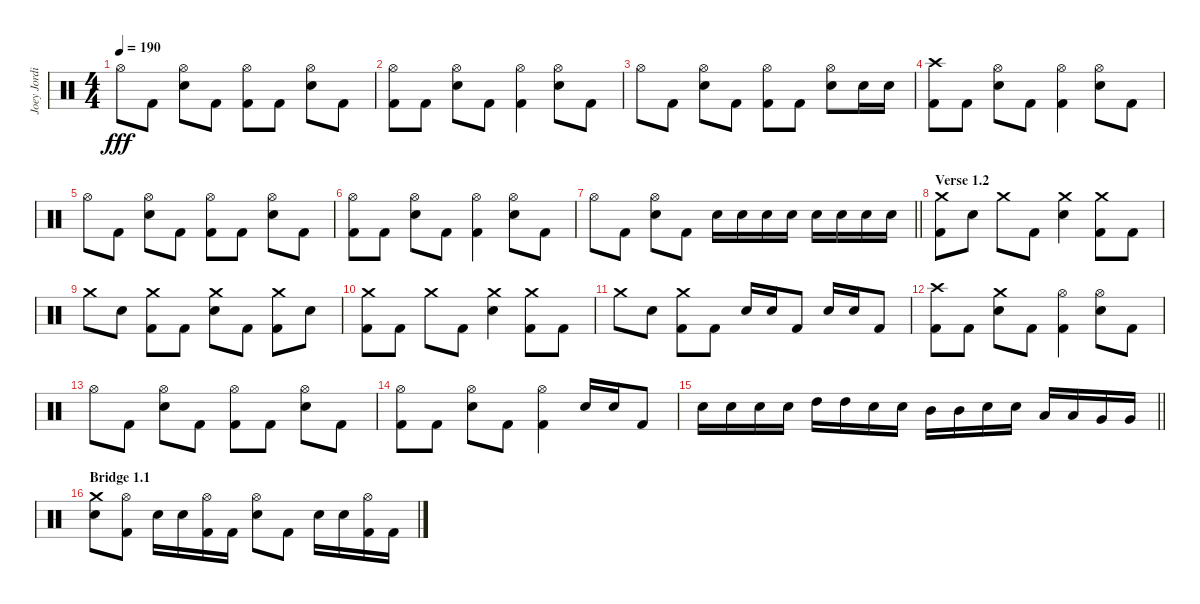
\track ("Joey Jordison" "Joey Jordi") {instrument percussion}
\staff {score}
\articulation defaults
\ts (4 4)
\tempo 190
\clef neutral
\ks c "Hi-Hat (open)".8{dy fff} "Kick (hit) 2".8
("Hi-Hat (open)" "Electric Snare (hit)").8 "Kick (hit) 2".8 ("Hi-Hat (open)" "Kick (hit) 2").8 "Kick (hit) 2".8 ("Hi-Hat (open)" "Electric Snare (hit)").8 "Kick (hit) 2".8 |
("Hi-Hat (open)" "Kick (hit) 2").8 "Kick (hit) 2".8 ("Hi-Hat (open)" "Electric Snare (hit)").8 "Kick (hit) 2".8 ("Hi-Hat (open)" "Kick (hit) 2").4 ("Hi-Hat (open)" "Electric Snare (hit)").8 "Kick (hit) 2".8 |
"Hi-Hat (open)".8 "Kick (hit) 2".8 ("Hi-Hat (open)" "Electric Snare (hit)").8 "Kick (hit) 2".8 ("Hi-Hat (open)" "Kick (hit) 2").8 "Kick (hit) 2".8 ("Hi-Hat (open)" "Electric Snare (hit)").8 "Electric Snare (hit)".16 "Electric Snare (hit)".16 |
("Crash high (hit)" "Kick (hit) 2").8 "Kick (hit) 2".8 ("Hi-Hat (open)" "Electric Snare (hit)").8 "Kick (hit) 2".8 ("Hi-Hat (open)" "Kick (hit) 2").4 ("Hi-Hat (open)" "Electric Snare (hit)").8 "Kick (hit) 2".8 |
"Hi-Hat (open)".8 "Kick (hit) 2".8 ("Hi-Hat (open)" "Electric Snare (hit)").8 "Kick (hit) 2".8 ("Hi-Hat (open)" "Kick (hit) 2").8 "Kick (hit) 2".8 ("Hi-Hat (open)" "Electric Snare (hit)").8 "Kick (hit) 2".8 |
("Hi-Hat (open)" "Kick (hit) 2").8 "Kick (hit) 2".8 ("Hi-Hat (open)" "Electric Snare (hit)").8 "Kick (hit) 2".8 ("Hi-Hat (open)" "Kick (hit) 2").4 ("Hi-Hat (open)" "Electric Snare (hit)").8 "Kick (hit) 2".8 |
\barLineRight lightlight "Hi-Hat (open)".8 "Kick (hit) 2".8
("Hi-Hat (open)" "Electric Snare (hit)").8 "Kick (hit) 2".8 "Electric Snare (hit)".16 "Electric Snare (hit)".16 "Electric Snare (hit)".16 "Electric Snare (hit)".16 "Electric Snare (hit)".16 "Electric Snare (hit)".16 "Electric Snare (hit)".16 "Electric Snare (hit)".16 |
\section ("" "Verse 1.2")
("Crash medium (hit)" "Kick (hit) 2").8 "Electric Snare (hit)".8 "Crash medium (hit)".8 "Kick (hit) 2".8 ("Crash medium (hit)" "Electric Snare (hit)").4 ("Crash medium (hit)" "Kick (hit) 2").8 "Kick (hit) 2".8 |
"Crash medium (hit)".8 "Electric Snare (hit)".8 ("Crash medium (hit)" "Kick (hit) 2").8 "Kick (hit) 2".8 ("Crash medium (hit)" "Electric Snare (hit)").8 "Kick (hit) 2".8 ("Crash medium (hit)" "Kick (hit) 2").8 "Electric Snare (hit)".8 |
("Crash medium (hit)" "Kick (hit) 2").8 "Kick (hit) 2".8 "Crash medium (hit)".8 "Kick (hit) 2".8 ("Crash medium (hit)" "Electric Snare (hit)").4 ("Crash medium (hit)" "Kick (hit) 2").8 "Kick (hit) 2".8 |
"Crash medium (hit)".8 "Electric Snare (hit)".8 ("Crash medium (hit)" "Kick (hit) 2").8 "Kick (hit) 2".8 "Electric Snare (hit)".16 "Electric Snare (hit)".16 "Kick (hit) 2".8 "Electric Snare (hit)".16 "Electric Snare (hit)".16 "Kick (hit) 2".8 |
("Crash high (hit)" "Kick (hit) 2").8 "Kick (hit) 2".8 ("Crash medium (hit)" "Electric Snare (hit)").8 "Kick (hit) 2".8 ("Hi-Hat (open)" "Kick (hit) 2").4 ("Hi-Hat (open)" "Electric Snare (hit)").8 "Kick (hit) 2".8 |
"Hi-Hat (open)".8 "Kick (hit) 2".8 ("Hi-Hat (open)" "Electric Snare (hit)").8 "Kick (hit) 2".8 ("Hi-Hat (open)" "Kick (hit) 2").8 "Kick (hit) 2".8 ("Hi-Hat (open)" "Electric Snare (hit)").8 "Kick (hit) 2".8 |
("Hi-Hat (open)" "Kick (hit) 2").8 "Kick (hit) 2".8 ("Hi-Hat (open)" "Electric Snare (hit)").8 "Kick (hit) 2".8 ("Hi-Hat (open)" "Kick (hit) 2").4 "Electric Snare (hit)".16 "Electric Snare (hit)".16 "Kick (hit) 2".8 |
\barLineRight lightlight "Electric Snare (hit)".16 "Electric Snare (hit)".16 "Electric Snare (hit)".16 "Electric Snare (hit)".16 "High Tom (hit)".16 "High Tom (hit)".16 "Electric Snare (hit)".16 "Electric Snare (hit)".16 "Mid Tom (hit)".16 "Mid Tom (hit)".16 "Electric Snare (hit)".16 "Electric Snare (hit)".16 "Low Tom (hit)".16 "Low Tom (hit)".16 "Very Low Tom (hit)".16 "Very Low Tom (hit)".16
|
\section ("" "Bridge 1.1")
("Crash medium (hit)" "Electric Snare (hit)").8 ("Hi-Hat (open)" "Kick (hit) 2").8 "Electric Snare (hit)".16 "Electric Snare (hit)".16 ("Hi-Hat (open)" "Kick (hit) 2").16 "Kick (hit) 2".16 ("Hi-Hat (open)" "Electric Snare (hit)").8 "Kick (hit) 2".8 "Electric Snare (hit)".16 "Electric Snare (hit)".16 ("Hi-Hat (open)" "Kick (hit) 2").16 "Kick (hit) 2".16
